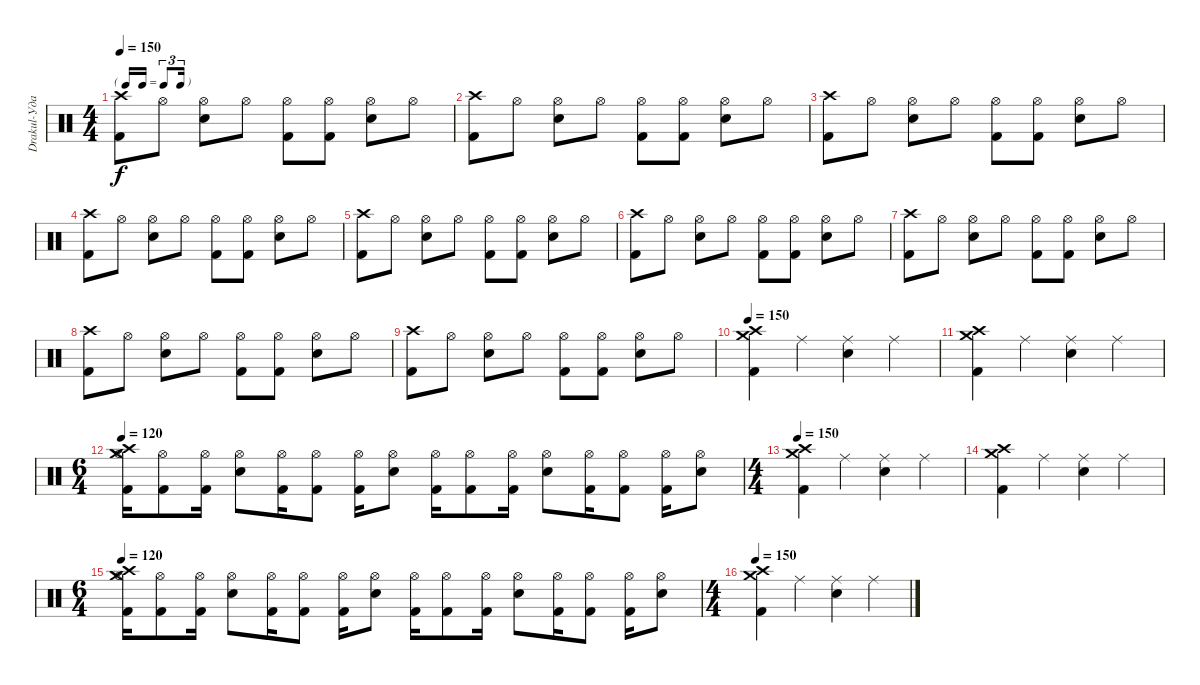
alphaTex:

\track ("Drakul-Ударные " "Drakul-Уда") {instrument percussion}
\staff {score}
\articulation defaults
\ts (4 4)
\tf triplet16th
\tempo 150
\clef neutral
\ks c
("Kick (hit) 2" "Crash high (hit)").8{dy f} "Hi-Hat (open)".8 ("Electric Snare (hit)" "Hi-Hat (open)").8 "Hi-Hat (open)".8 ("Kick (hit) 2" "Hi-Hat (open)").8 ("Kick (hit) 2" "Hi-Hat (open)").8 ("Electric Snare (hit)" "Hi-Hat (open)").8 "Hi-Hat (open)".8 |
("Kick (hit) 2" "Crash high (hit)").8 "Hi-Hat (open)".8 ("Electric Snare (hit)" "Hi-Hat (open)").8 "Hi-Hat (open)".8 ("Kick (hit) 2" "Hi-Hat (open)").8 ("Kick (hit) 2" "Hi-Hat (open)").8 ("Electric Snare (hit)" "Hi-Hat (open)").8 "Hi-Hat (open)".8 |
("Kick (hit) 2" "Crash high (hit)").8 "Hi-Hat (open)".8 ("Electric Snare (hit)" "Hi-Hat (open)").8 "Hi-Hat (open)".8 ("Kick (hit) 2" "Hi-Hat (open)").8 ("Kick (hit) 2" "Hi-Hat (open)").8 ("Electric Snare (hit)" "Hi-Hat (open)").8 "Hi-Hat (open)".8 |
("Kick (hit) 2" "Crash high (hit)").8 "Hi-Hat (open)".8 ("Electric Snare (hit)" "Hi-Hat (open)").8 "Hi-Hat (open)".8 ("Kick (hit) 2" "Hi-Hat (open)").8 ("Kick (hit) 2" "Hi-Hat (open)").8 ("Electric Snare (hit)" "Hi-Hat (open)").8 "Hi-Hat (open)".8 |
("Kick (hit) 2" "Crash high (hit)").8 "Hi-Hat (open)".8 ("Electric Snare (hit)" "Hi-Hat (open)").8 "Hi-Hat (open)".8 ("Kick (hit) 2" "Hi-Hat (open)").8 ("Kick (hit) 2" "Hi-Hat (open)").8 ("Electric Snare (hit)" "Hi-Hat (open)").8 "Hi-Hat (open)".8 |
("Kick (hit) 2" "Crash high (hit)").8 "Hi-Hat (open)".8 ("Electric Snare (hit)" "Hi-Hat (open)").8 "Hi-Hat (open)".8 ("Kick (hit) 2" "Hi-Hat (open)").8 ("Kick (hit) 2" "Hi-Hat (open)").8 ("Electric Snare (hit)" "Hi-Hat (open)").8 "Hi-Hat (open)".8 |
("Kick (hit) 2" "Crash high (hit)").8 "Hi-Hat (open)".8 ("Electric Snare (hit)" "Hi-Hat (open)").8 "Hi-Hat (open)".8 ("Kick (hit) 2" "Hi-Hat (open)").8 ("Kick (hit) 2" "Hi-Hat (open)").8 ("Electric Snare (hit)" "Hi-Hat (open)").8 "Hi-Hat (open)".8 |
("Kick (hit) 2" "Crash high (hit)").8 "Hi-Hat (open)".8 ("Electric Snare (hit)" "Hi-Hat (open)").8 "Hi-Hat (open)".8 ("Kick (hit) 2" "Hi-Hat (open)").8 ("Kick (hit) 2" "Hi-Hat (open)").8 ("Electric Snare (hit)" "Hi-Hat (open)").8 "Hi-Hat (open)".8 |
("Kick (hit) 2" "Crash high (hit)").8 "Hi-Hat (open)".8 ("Electric Snare (hit)" "Hi-Hat (open)").8 "Hi-Hat (open)".8 ("Kick (hit) 2" "Hi-Hat (open)").8 ("Kick (hit) 2" "Hi-Hat (open)").8 ("Electric Snare (hit)" "Hi-Hat (open)").8 "Hi-Hat (open)".8 |
\tempo 150
("Kick (hit) 2" "Crash high (hit)" "Crash medium (hit)").4 "Ride (middle)".4 ("Electric Snare (hit)" "Ride (middle)").4 "Ride (middle)".4 |
("Kick (hit) 2" "Crash high (hit)" "Crash medium (hit)").4 "Ride (middle)".4 ("Electric Snare (hit)" "Ride (middle)").4 "Ride (middle)".4 |
\ts (6 4)
\tempo 120
("Kick (hit) 2" "Hi-Hat (open)" "Crash high (hit)" "Crash medium (hit)").16 ("Kick (hit) 2" "Hi-Hat (open)").8 ("Kick (hit) 2" "Hi-Hat (open)").16 ("Electric Snare (hit)" "Hi-Hat (open)").8 ("Kick (hit) 2" "Hi-Hat (open)").16 ("Kick (hit) 2" "Hi-Hat (open)").8 ("Kick (hit) 2" "Hi-Hat (open)").16 ("Electric Snare (hit)" "Hi-Hat (open)").8 ("Kick (hit) 2" "Hi-Hat (open)").16 ("Kick (hit) 2" "Hi-Hat (open)").8 ("Kick (hit) 2" "Hi-Hat (open)").16 ("Electric Snare (hit)" "Hi-Hat (open)").8 ("Kick (hit) 2" "Hi-Hat (open)").16 ("Kick (hit) 2" "Hi-Hat (open)").8 ("Kick (hit) 2" "Hi-Hat (open)").16 ("Electric Snare (hit)" "Hi-Hat (open)").8 |
\ts (4 4)
\tempo 150
("Kick (hit) 2" "Crash high (hit)" "Crash medium (hit)").4 "Ride (middle)".4 ("Electric Snare (hit)" "Ride (middle)").4 "Ride (middle)".4 |
("Kick (hit) 2" "Crash high (hit)" "Crash medium (hit)").4 "Ride (middle)".4 ("Electric Snare (hit)" "Ride (middle)").4 "Ride (middle)".4 |
\ts (6 4)
\tempo 120
("Kick (hit) 2" "Hi-Hat (open)" "Crash high (hit)" "Crash medium (hit)").16 ("Kick (hit) 2" "Hi-Hat (open)").8 ("Kick (hit) 2" "Hi-Hat (open)").16 ("Electric Snare (hit)" "Hi-Hat (open)").8 ("Kick (hit) 2" "Hi-Hat (open)").16 ("Kick (hit) 2" "Hi-Hat (open)").8 ("Kick (hit) 2" "Hi-Hat (open)").16 ("Electric Snare (hit)" "Hi-Hat (open)").8 ("Kick (hit) 2" "Hi-Hat (open)").16 ("Kick (hit) 2" "Hi-Hat (open)").8 ("Kick (hit) 2" "Hi-Hat (open)").16 ("Electric Snare (hit)" "Hi-Hat (open)").8 ("Kick (hit) 2" "Hi-Hat (open)").16 ("Kick (hit) 2" "Hi-Hat (open)").8 ("Kick (hit) 2" "Hi-Hat (open)").16 ("Electric Snare (hit)" "Hi-Hat (open)").8 |
\ts (4 4)
\tempo 150
("Kick (hit) 2" "Crash high (hit)" "Crash medium (hit)").4 "Ride (middle)".4 ("Electric Snare (hit)" "Ride (middle)").4 "Ride (middle)".4
